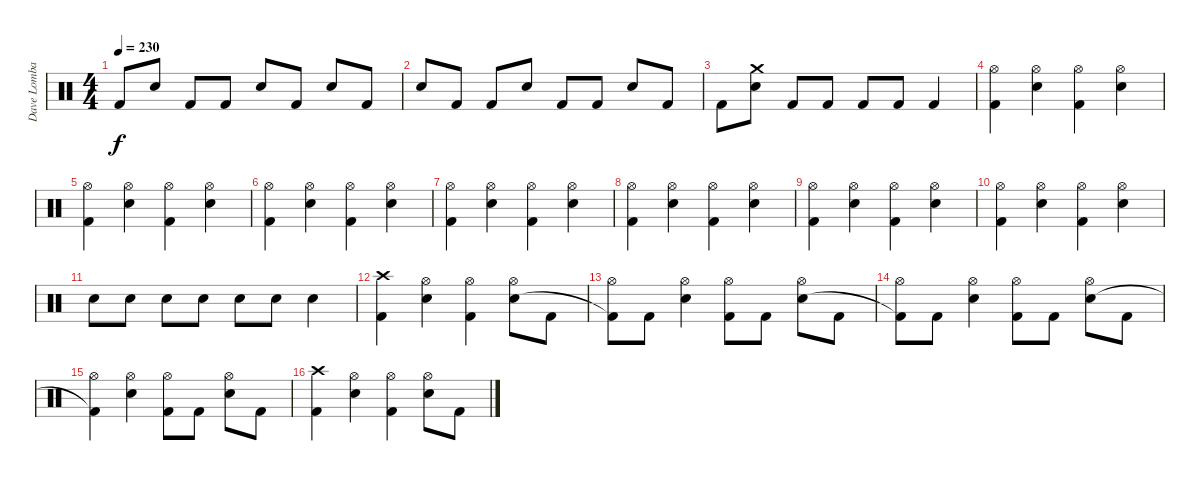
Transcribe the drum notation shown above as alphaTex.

\track ("Dave Lombardo" "Dave Lomba") {instrument percussion}
\staff {score}
\articulation defaults
\ts (4 4)
\tempo 230
\clef neutral
\ks c "Kick (hit) 2".8{dy f} "Snare (hit) 2".8 "Kick (hit) 2".8 "Kick (hit) 2".8 "Snare (hit) 2".8 "Kick (hit) 2".8 "Snare (hit) 2".8 "Kick (hit) 2".8
|
"Snare (hit) 2".8 "Kick (hit) 2".8 "Kick (hit) 2".8 "Snare (hit) 2".8 "Kick (hit) 2".8 "Kick (hit) 2".8 "Snare (hit) 2".8 "Kick (hit) 2".8 |
"Kick (hit) 2".8 ("Crash medium (hit)" "Snare (hit) 2").8 "Kick (hit) 2".8 "Kick (hit) 2".8 "Kick (hit) 2".8 "Kick (hit) 2".8 "Kick (hit) 2".4 |
("Hi-Hat (open)" "Kick (hit) 2").4 ("Hi-Hat (open)" "Snare (hit) 2").4 ("Hi-Hat (open)" "Kick (hit) 2").4 ("Hi-Hat (open)" "Snare (hit) 2").4 |
("Hi-Hat (open)" "Kick (hit) 2").4 ("Hi-Hat (open)" "Snare (hit) 2").4 ("Hi-Hat (open)" "Kick (hit) 2").4 ("Hi-Hat (open)" "Snare (hit) 2").4 |
("Hi-Hat (open)" "Kick (hit) 2").4 ("Hi-Hat (open)" "Snare (hit) 2").4 ("Hi-Hat (open)" "Kick (hit) 2").4 ("Hi-Hat (open)" "Snare (hit) 2").4 |
("Hi-Hat (open)" "Kick (hit) 2").4 ("Hi-Hat (open)" "Snare (hit) 2").4 ("Hi-Hat (open)" "Kick (hit) 2").4 ("Hi-Hat (open)" "Snare (hit) 2").4 |
("Hi-Hat (open)" "Kick (hit) 2").4 ("Hi-Hat (open)" "Snare (hit) 2").4 ("Hi-Hat (open)" "Kick (hit) 2").4 ("Hi-Hat (open)" "Snare (hit) 2").4 |
("Hi-Hat (open)" "Kick (hit) 2").4 ("Hi-Hat (open)" "Snare (hit) 2").4 ("Hi-Hat (open)" "Kick (hit) 2").4 ("Hi-Hat (open)" "Snare (hit) 2").4 |
("Hi-Hat (open)" "Kick (hit) 2").4 ("Hi-Hat (open)" "Snare (hit) 2").4 ("Hi-Hat (open)" "Kick (hit) 2").4 ("Hi-Hat (open)" "Snare (hit) 2").4 |
"Snare (hit) 2".8 "Snare (hit) 2".8 "Snare (hit) 2".8 "Snare (hit) 2".8 "Snare (hit) 2".8 "Snare (hit) 2".8 "Snare (hit) 2".4 |
("Crash high (hit)" "Kick (hit) 2").4 ("Hi-Hat (open)" "Snare (hit) 2").4 ("Hi-Hat (open)" "Kick (hit) 2").4 ("Hi-Hat (open)" "Snare (hit) 2").8 "Kick (hit) 2".8 |
("Hi-Hat (open)" "Kick (hit) 2"{t}).8 "Kick (hit) 2".8 ("Hi-Hat (open)" "Snare (hit) 2").4 ("Hi-Hat (open)" "Kick (hit) 2").8 "Kick (hit) 2".8 ("Hi-Hat (open)" "Snare (hit) 2").8 "Kick (hit) 2".8 |
("Hi-Hat (open)" "Kick (hit) 2"{t}).8 "Kick (hit) 2".8 ("Hi-Hat (open)" "Snare (hit) 2").4 ("Hi-Hat (open)" "Kick (hit) 2").8 "Kick (hit) 2".8 ("Hi-Hat (open)" "Snare (hit) 2").8 "Kick (hit) 2".8 |
("Hi-Hat (open)" "Kick (hit) 2"{t}).4 ("Hi-Hat (open)" "Snare (hit) 2").4 ("Hi-Hat (open)" "Kick (hit) 2").8 "Kick (hit) 2".8 ("Hi-Hat (open)" "Snare (hit) 2").8 "Kick (hit) 2".8 |
("Crash high (hit)" "Kick (hit) 2").4 ("Hi-Hat (open)" "Snare (hit) 2").4 ("Hi-Hat (open)" "Kick (hit) 2").4 ("Hi-Hat (open)" "Snare (hit) 2").8 "Kick (hit) 2".8
